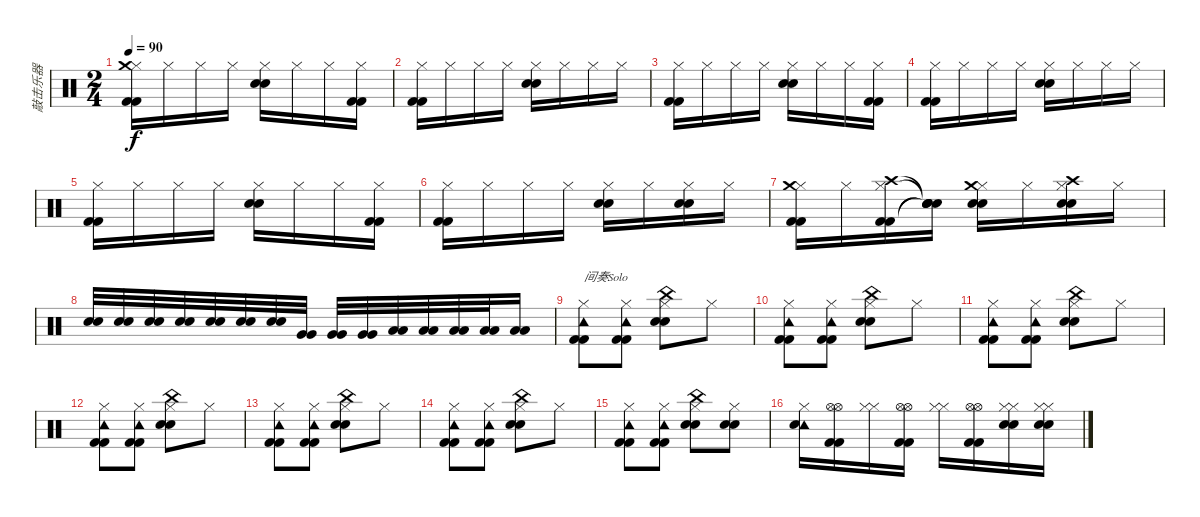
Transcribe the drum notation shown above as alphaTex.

\track ("敲击乐器" "敲击乐器") {instrument percussion}
\staff {score}
\articulation defaults
\ts (2 4)
\tempo 90
\clef neutral
\ks c
("Hi-Hat (closed)" "Crash medium (hit)" "Kick (hit) 2" "Kick (hit) 2").16{dy f} "Hi-Hat (closed)".16 "Hi-Hat (closed)".16 "Hi-Hat (closed)".16 ("Hi-Hat (closed)" "Electric Snare (hit)" "Electric Snare (hit)").16 "Hi-Hat (closed)".16 "Hi-Hat (closed)".16 ("Hi-Hat (closed)" "Kick (hit) 2" "Kick (hit) 2").16 |
("Hi-Hat (closed)" "Kick (hit) 2" "Kick (hit) 2").16 "Hi-Hat (closed)".16 "Hi-Hat (closed)".16 "Hi-Hat (closed)".16 ("Hi-Hat (closed)" "Electric Snare (hit)" "Electric Snare (hit)").16 "Hi-Hat (closed)".16 "Hi-Hat (closed)".16 "Hi-Hat (closed)".16 |
("Hi-Hat (closed)" "Kick (hit) 2" "Kick (hit) 2").16 "Hi-Hat (closed)".16 "Hi-Hat (closed)".16 "Hi-Hat (closed)".16 ("Hi-Hat (closed)" "Electric Snare (hit)" "Electric Snare (hit)").16 "Hi-Hat (closed)".16 "Hi-Hat (closed)".16 ("Hi-Hat (closed)" "Kick (hit) 2" "Kick (hit) 2").16 |
("Hi-Hat (closed)" "Kick (hit) 2" "Kick (hit) 2").16 "Hi-Hat (closed)".16 "Hi-Hat (closed)".16 "Hi-Hat (closed)".16 ("Hi-Hat (closed)" "Electric Snare (hit)" "Electric Snare (hit)").16 "Hi-Hat (closed)".16 "Hi-Hat (closed)".16 "Hi-Hat (closed)".16 |
("Hi-Hat (closed)" "Kick (hit) 2" "Kick (hit) 2").16 "Hi-Hat (closed)".16 "Hi-Hat (closed)".16 "Hi-Hat (closed)".16 ("Hi-Hat (closed)" "Electric Snare (hit)" "Electric Snare (hit)").16 "Hi-Hat (closed)".16 "Hi-Hat (closed)".16 ("Hi-Hat (closed)" "Kick (hit) 2" "Kick (hit) 2").16 |
("Hi-Hat (closed)" "Kick (hit) 2" "Kick (hit) 2").16 "Hi-Hat (closed)".16 "Hi-Hat (closed)".16 "Hi-Hat (closed)".16 ("Hi-Hat (closed)" "Snare (hit) 2" "Electric Snare (hit)").16 "Hi-Hat (closed)".16 ("Hi-Hat (closed)" "Snare (hit) 2" "Electric Snare (hit)").16 "Hi-Hat (closed)".16 |
("Hi-Hat (closed)" "Crash medium (hit)" "Kick (hit) 2" "Kick (hit) 2").16 "Hi-Hat (closed)".16 ("Hi-Hat (closed)" "Crash high (hit)" "Kick (hit) 2" "Kick (hit) 2").16 ("Snare (hit)"{t} "Snare (hit)"{t} "Snare (hit)"{t} "Snare (hit)"{t}).16 ("Hi-Hat (closed)" "Crash medium (hit)" "Snare (hit) 2" "Snare (hit) 2").16 "Hi-Hat (closed)".16 ("Hi-Hat (closed)" "Crash high (hit)" "Snare (hit) 2" "Snare (hit) 2").16 "Hi-Hat (closed)".16 |
("Snare (hit) 2" "Snare (hit) 2").32 ("Snare (hit) 2" "Snare (hit) 2").32 ("Snare (hit) 2" "Snare (hit) 2").32 ("Snare (hit) 2" "Snare (hit) 2").32 ("Snare (hit) 2" "Snare (hit) 2").32 ("Snare (hit) 2" "Snare (hit) 2").32 ("Snare (hit) 2" "Snare (hit) 2").32 ("Very Low Tom (hit)" "Very Low Tom (hit)").32 ("Very Low Tom (hit)" "Very Low Tom (hit)").32 ("Very Low Tom (hit)" "Very Low Tom (hit)").32 ("Low Floor Tom (hit)" "Low Floor Tom (hit)").32 ("Low Floor Tom (hit)" "Low Floor Tom (hit)").32 ("Low Floor Tom (hit)" "Low Floor Tom (hit)").32 ("Low Floor Tom (hit)" "Low Floor Tom (hit)").32 ("Low Floor Tom (hit)" "Low Floor Tom (hit)").16 |
("Hi-Hat (closed)" "Tambourine (hit)" "Kick (hit) 2" "Kick (hit) 2").8{txt "间奏Solo"} ("Hi-Hat (closed)" "Tambourine (hit)" "Kick (hit) 2" "Kick (hit) 2").8 ("Hi-Hat (closed)" "China (hit)" "Snare (hit) 2" "Snare (hit) 2").8 "Hi-Hat (closed)".8 |
("Hi-Hat (closed)" "Tambourine (hit)" "Kick (hit) 2" "Kick (hit) 2").8 ("Hi-Hat (closed)" "Tambourine (hit)" "Kick (hit) 2" "Kick (hit) 2").8 ("Hi-Hat (closed)" "China (hit)" "Snare (hit) 2" "Snare (hit) 2").8 "Hi-Hat (closed)".8 |
("Hi-Hat (closed)" "Tambourine (hit)" "Kick (hit) 2" "Kick (hit) 2").8 ("Hi-Hat (closed)" "Tambourine (hit)" "Kick (hit) 2" "Kick (hit) 2").8 ("Hi-Hat (closed)" "China (hit)" "Snare (hit) 2" "Snare (hit) 2").8 "Hi-Hat (closed)".8 |
("Hi-Hat (closed)" "Tambourine (hit)" "Kick (hit) 2" "Kick (hit) 2").8 ("Hi-Hat (closed)" "Tambourine (hit)" "Kick (hit) 2" "Kick (hit) 2").8 ("Hi-Hat (closed)" "China (hit)" "Snare (hit) 2" "Snare (hit) 2").8 "Hi-Hat (closed)".8 |
("Hi-Hat (closed)" "Tambourine (hit)" "Kick (hit) 2" "Kick (hit) 2").8 ("Hi-Hat (closed)" "Tambourine (hit)" "Kick (hit) 2" "Kick (hit) 2").8 ("Hi-Hat (closed)" "China (hit)" "Snare (hit) 2" "Snare (hit) 2").8 "Hi-Hat (closed)".8 |
("Hi-Hat (closed)" "Tambourine (hit)" "Kick (hit) 2" "Kick (hit) 2").8 ("Hi-Hat (closed)" "Tambourine (hit)" "Kick (hit) 2" "Kick (hit) 2").8 ("Hi-Hat (closed)" "China (hit)" "Snare (hit) 2" "Snare (hit) 2").8 "Hi-Hat (closed)".8 |
("Hi-Hat (closed)" "Tambourine (hit)" "Kick (hit) 2" "Kick (hit) 2").8 ("Hi-Hat (closed)" "Tambourine (hit)" "Kick (hit) 2" "Kick (hit) 2").8 ("Hi-Hat (closed)" "China (hit)" "Snare (hit) 2" "Snare (hit) 2").8 ("Hi-Hat (closed)" "Snare (hit) 2" "Snare (hit) 2").8 |
("Hi-Hat (closed)" "Tambourine (hit)" "Snare (hit) 2").16 ("Hi-Hat (open)" "Hi-Hat (open)" "Kick (hit) 2" "Kick (hit) 2").16 ("Hi-Hat (closed)" "Hi-Hat (closed)").16 ("Hi-Hat (open)" "Hi-Hat (open)" "Kick (hit) 2" "Kick (hit) 2").16 ("Hi-Hat (closed)" "Hi-Hat (closed)").16 ("Hi-Hat (open)" "Hi-Hat (open)" "Kick (hit) 2" "Kick (hit) 2").16 ("Hi-Hat (closed)" "Hi-Hat (closed)" "Snare (hit) 2" "Snare (hit) 2").16 ("Hi-Hat (closed)" "Hi-Hat (closed)" "Snare (hit) 2" "Snare (hit) 2").16
